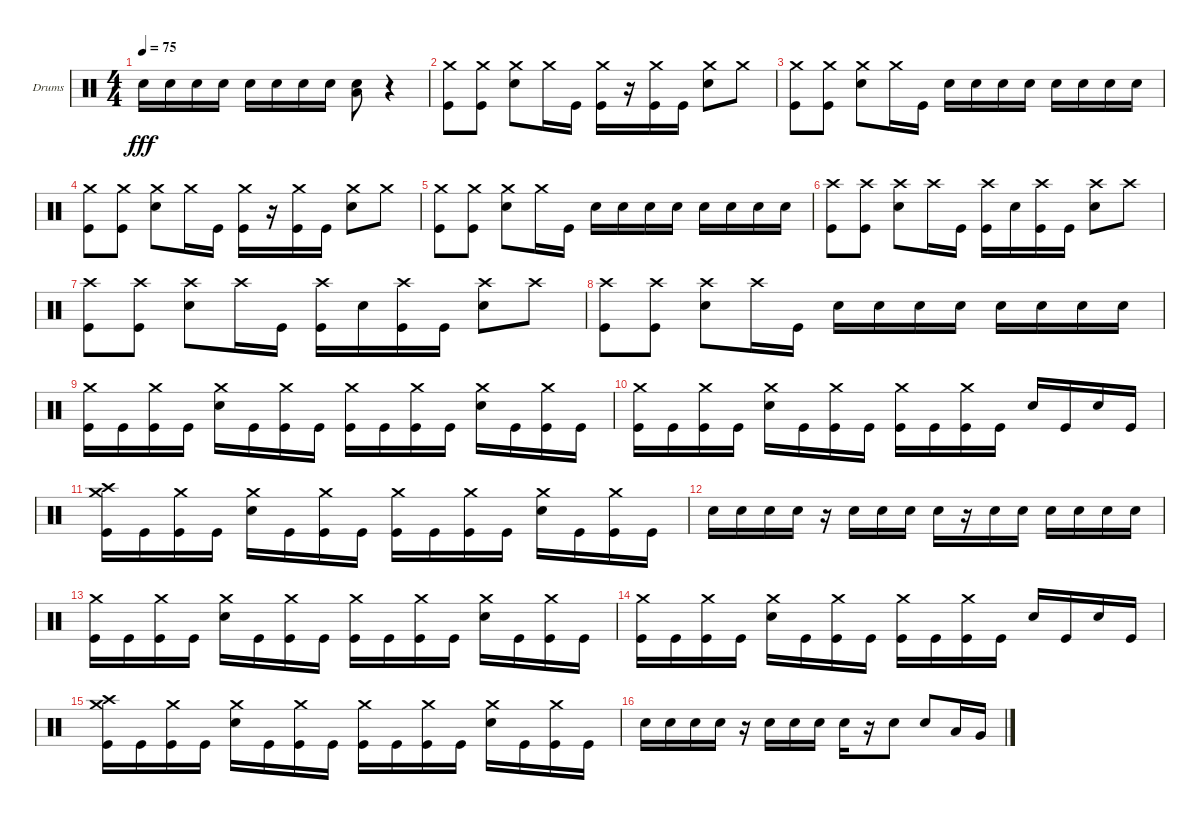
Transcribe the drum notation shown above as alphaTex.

\bracketExtendMode groupsimilarinstruments
\firstSystemTrackNameOrientation horizontal
\otherSystemsTrackNameOrientation horizontal
\track ("Drumkit" "Drums") {instrument percussion}
\staff {score}
\articulation defaults
\ts (4 4)
\tempo 75
\clef neutral
\ks c "Snare (hit) 2".16{dy fff} "Snare (hit) 2".16 "Snare (hit) 2".16 "Snare (hit) 2".16 "Snare (hit) 2".16 "Snare (hit) 2".16 "Snare (hit) 2".16 "Snare (hit) 2".16
("Snare (hit) 2" "Low Tom (hit)").8 r.4 |
("Kick (hit)" "Crash medium (hit)").8 ("Kick (hit)" "Crash medium (hit)").8 ("Snare (hit) 2" "Crash medium (hit)").8 "Crash medium (hit)".16 "Kick (hit)".16 ("Kick (hit)" "Crash medium (hit)").16 r.16 ("Kick (hit)" "Crash medium (hit)").16 "Kick (hit)".16 ("Snare (hit) 2" "Crash medium (hit)").8 "Crash medium (hit)".8 |
("Kick (hit)" "Crash medium (hit)").8 ("Kick (hit)" "Crash medium (hit)").8 ("Snare (hit) 2" "Crash medium (hit)").8 "Crash medium (hit)".16 "Kick (hit)".16 "Snare (hit) 2".16 "Snare (hit) 2".16 "Snare (hit) 2".16 "Snare (hit) 2".16 "Snare (hit) 2".16 "Snare (hit) 2".16 "Snare (hit) 2".16 "Snare (hit) 2".16 |
("Kick (hit)" "Crash medium (hit)").8 ("Kick (hit)" "Crash medium (hit)").8 ("Snare (hit) 2" "Crash medium (hit)").8 "Crash medium (hit)".16 "Kick (hit)".16 ("Kick (hit)" "Crash medium (hit)").16 r.16 ("Kick (hit)" "Crash medium (hit)").16 "Kick (hit)".16 ("Snare (hit) 2" "Crash medium (hit)").8 "Crash medium (hit)".8 |
("Kick (hit)" "Crash medium (hit)").8 ("Kick (hit)" "Crash medium (hit)").8 ("Snare (hit) 2" "Crash medium (hit)").8 "Crash medium (hit)".16 "Kick (hit)".16 "Snare (hit) 2".16 "Snare (hit) 2".16 "Snare (hit) 2".16 "Snare (hit) 2".16 "Snare (hit) 2".16 "Snare (hit) 2".16 "Snare (hit) 2".16 "Snare (hit) 2".16 |
("Kick (hit)" "Crash high (hit)").8 ("Kick (hit)" "Crash high (hit)").8 ("Snare (hit) 2" "Crash high (hit)").8 "Crash high (hit)".16 "Kick (hit)".16 ("Kick (hit)" "Crash high (hit)").16 "Snare (hit) 2".16 ("Kick (hit)" "Crash high (hit)").16 "Kick (hit)".16 ("Snare (hit) 2" "Crash high (hit)").8 "Crash high (hit)".8 |
("Kick (hit)" "Crash high (hit)").8 ("Kick (hit)" "Crash high (hit)").8 ("Snare (hit) 2" "Crash high (hit)").8 "Crash high (hit)".16 "Kick (hit)".16 ("Kick (hit)" "Crash high (hit)").16 "Snare (hit) 2".16 ("Kick (hit)" "Crash high (hit)").16 "Kick (hit)".16 ("Snare (hit) 2" "Crash high (hit)").8 "Crash high (hit)".8 |
("Kick (hit)" "Crash high (hit)").8 ("Kick (hit)" "Crash high (hit)").8 ("Snare (hit) 2" "Crash high (hit)").8 "Crash high (hit)".16 "Kick (hit)".16 "Snare (hit) 2".16 "Snare (hit) 2".16 "Snare (hit) 2".16 "Snare (hit) 2".16 "Snare (hit) 2".16 "Snare (hit) 2".16 "Snare (hit) 2".16 "Snare (hit) 2".16 |
("Kick (hit)" "Crash medium (hit)").16 "Kick (hit)".16 ("Kick (hit)" "Crash medium (hit)").16 "Kick (hit)".16 ("Snare (hit) 2" "Crash medium (hit)").16 "Kick (hit)".16 ("Kick (hit)" "Crash medium (hit)").16 "Kick (hit)".16 ("Kick (hit)" "Crash medium (hit)").16 "Kick (hit)".16 ("Kick (hit)" "Crash medium (hit)").16 "Kick (hit)".16 ("Snare (hit) 2" "Crash medium (hit)").16 "Kick (hit)".16 ("Kick (hit)" "Crash medium (hit)").16 "Kick (hit)".16 |
("Kick (hit)" "Crash medium (hit)").16 "Kick (hit)".16 ("Kick (hit)" "Crash medium (hit)").16 "Kick (hit)".16 ("Snare (hit) 2" "Crash medium (hit)").16 "Kick (hit)".16 ("Kick (hit)" "Crash medium (hit)").16 "Kick (hit)".16 ("Kick (hit)" "Crash medium (hit)").16 "Kick (hit)".16 ("Kick (hit)" "Crash medium (hit)").16 "Kick (hit)".16 "Snare (hit) 2".16 "Kick (hit)".16 "Snare (hit) 2".16 "Kick (hit)".16 |
("Kick (hit)" "Crash medium (hit)" "Crash high (hit)").16 "Kick (hit)".16 ("Kick (hit)" "Crash medium (hit)").16 "Kick (hit)".16 ("Snare (hit) 2" "Crash medium (hit)").16 "Kick (hit)".16 ("Kick (hit)" "Crash medium (hit)").16 "Kick (hit)".16 ("Kick (hit)" "Crash medium (hit)").16 "Kick (hit)".16 ("Kick (hit)" "Crash medium (hit)").16 "Kick (hit)".16 ("Snare (hit) 2" "Crash medium (hit)").16 "Kick (hit)".16 ("Kick (hit)" "Crash medium (hit)").16 "Kick (hit)".16 |
"Snare (hit) 2".16 "Snare (hit) 2".16 "Snare (hit) 2".16 "Snare (hit) 2".16 r.16 "Snare (hit) 2".16 "Snare (hit) 2".16 "Snare (hit) 2".16 "Snare (hit) 2".16 r.16 "Snare (hit) 2".16 "Snare (hit) 2".16 "Snare (hit) 2".16 "Snare (hit) 2".16 "Snare (hit) 2".16 "Snare (hit) 2".16 |
("Kick (hit)" "Crash medium (hit)").16 "Kick (hit)".16 ("Kick (hit)" "Crash medium (hit)").16 "Kick (hit)".16 ("Snare (hit) 2" "Crash medium (hit)").16 "Kick (hit)".16 ("Kick (hit)" "Crash medium (hit)").16 "Kick (hit)".16 ("Kick (hit)" "Crash medium (hit)").16 "Kick (hit)".16 ("Kick (hit)" "Crash medium (hit)").16 "Kick (hit)".16 ("Snare (hit) 2" "Crash medium (hit)").16 "Kick (hit)".16 ("Kick (hit)" "Crash medium (hit)").16 "Kick (hit)".16 |
("Kick (hit)" "Crash medium (hit)").16 "Kick (hit)".16 ("Kick (hit)" "Crash medium (hit)").16 "Kick (hit)".16 ("Snare (hit) 2" "Crash medium (hit)").16 "Kick (hit)".16 ("Kick (hit)" "Crash medium (hit)").16 "Kick (hit)".16 ("Kick (hit)" "Crash medium (hit)").16 "Kick (hit)".16 ("Kick (hit)" "Crash medium (hit)").16 "Kick (hit)".16 "Snare (hit) 2".16 "Kick (hit)".16 "Snare (hit) 2".16 "Kick (hit)".16 |
("Kick (hit)" "Crash medium (hit)" "Crash high (hit)").16 "Kick (hit)".16 ("Kick (hit)" "Crash medium (hit)").16 "Kick (hit)".16 ("Snare (hit) 2" "Crash medium (hit)").16 "Kick (hit)".16 ("Kick (hit)" "Crash medium (hit)").16 "Kick (hit)".16 ("Kick (hit)" "Crash medium (hit)").16 "Kick (hit)".16 ("Kick (hit)" "Crash medium (hit)").16 "Kick (hit)".16 ("Snare (hit) 2" "Crash medium (hit)").16 "Kick (hit)".16 ("Kick (hit)" "Crash medium (hit)").16 "Kick (hit)".16 |
"Snare (hit) 2".16 "Snare (hit) 2".16 "Snare (hit) 2".16 "Snare (hit) 2".16 r.16 "Snare (hit) 2".16 "Snare (hit) 2".16 "Snare (hit) 2".16 "Snare (hit) 2".16 r.16 "Snare (hit) 2".8 "Snare (hit) 2".8 "Low Tom (hit)".16 "Very Low Tom (hit)".16
